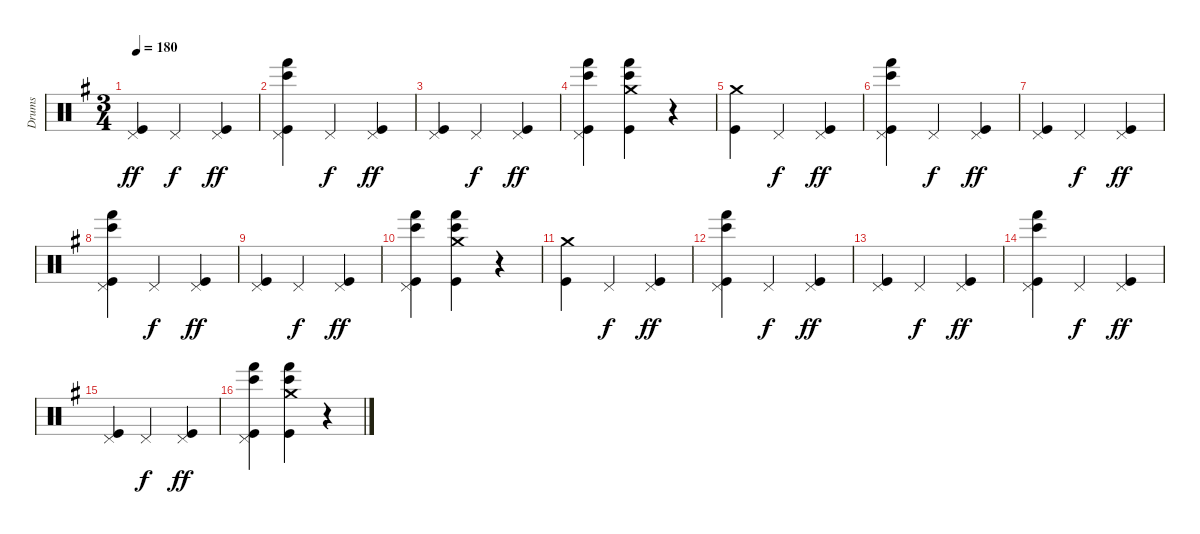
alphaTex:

\track ("Drums" "Drums") {instrument percussion bank 24}
\staff {score}
\articulation defaults
\ts (3 4)
\tempo 180
\clef neutral
\ks eminor
("Pedal Hi-Hat (hit)" "Kick (hit)").4{dy ff} "Pedal Hi-Hat (hit)".4{dy f} ("Pedal Hi-Hat (hit)" "Kick (hit)").4{dy ff} |
("Pedal Hi-Hat (hit)" "Bongo High (hit)" "Hand (hit)" "Kick (hit)").4 "Pedal Hi-Hat (hit)".4{dy f} ("Pedal Hi-Hat (hit)" "Kick (hit)").4{dy ff} |
("Pedal Hi-Hat (hit)" "Kick (hit)").4 "Pedal Hi-Hat (hit)".4{dy f} ("Pedal Hi-Hat (hit)" "Kick (hit)").4{dy ff} |
("Pedal Hi-Hat (hit)" "Bongo High (hit)" "Hand (hit)" "Kick (hit)").4 ("Crash medium (hit)" "Bongo High (hit)" "Hand (hit)" "Kick (hit)").4 r.4 |
("Crash medium (hit)" "Kick (hit)").4 "Pedal Hi-Hat (hit)".4{dy f} ("Pedal Hi-Hat (hit)" "Kick (hit)").4{dy ff} |
("Pedal Hi-Hat (hit)" "Bongo High (hit)" "Hand (hit)" "Kick (hit)").4 "Pedal Hi-Hat (hit)".4{dy f} ("Pedal Hi-Hat (hit)" "Kick (hit)").4{dy ff} |
("Pedal Hi-Hat (hit)" "Kick (hit)").4 "Pedal Hi-Hat (hit)".4{dy f} ("Pedal Hi-Hat (hit)" "Kick (hit)").4{dy ff} |
("Pedal Hi-Hat (hit)" "Bongo High (hit)" "Hand (hit)" "Kick (hit)").4 "Pedal Hi-Hat (hit)".4{dy f} ("Pedal Hi-Hat (hit)" "Kick (hit)").4{dy ff} |
("Pedal Hi-Hat (hit)" "Kick (hit)").4 "Pedal Hi-Hat (hit)".4{dy f} ("Pedal Hi-Hat (hit)" "Kick (hit)").4{dy ff} |
("Pedal Hi-Hat (hit)" "Bongo High (hit)" "Hand (hit)" "Kick (hit)").4 ("Crash medium (hit)" "Bongo High (hit)" "Hand (hit)" "Kick (hit)").4 r.4 |
("Crash medium (hit)" "Kick (hit)").4 "Pedal Hi-Hat (hit)".4{dy f} ("Pedal Hi-Hat (hit)" "Kick (hit)").4{dy ff} |
("Pedal Hi-Hat (hit)" "Bongo High (hit)" "Hand (hit)" "Kick (hit)").4 "Pedal Hi-Hat (hit)".4{dy f} ("Pedal Hi-Hat (hit)" "Kick (hit)").4{dy ff} |
("Pedal Hi-Hat (hit)" "Kick (hit)").4 "Pedal Hi-Hat (hit)".4{dy f} ("Pedal Hi-Hat (hit)" "Kick (hit)").4{dy ff} |
("Pedal Hi-Hat (hit)" "Bongo High (hit)" "Hand (hit)" "Kick (hit)").4 "Pedal Hi-Hat (hit)".4{dy f} ("Pedal Hi-Hat (hit)" "Kick (hit)").4{dy ff} |
("Pedal Hi-Hat (hit)" "Kick (hit)").4 "Pedal Hi-Hat (hit)".4{dy f} ("Pedal Hi-Hat (hit)" "Kick (hit)").4{dy ff} |
("Pedal Hi-Hat (hit)" "Bongo High (hit)" "Hand (hit)" "Kick (hit)").4 ("Crash medium (hit)" "Bongo High (hit)" "Hand (hit)" "Kick (hit)").4 r.4
